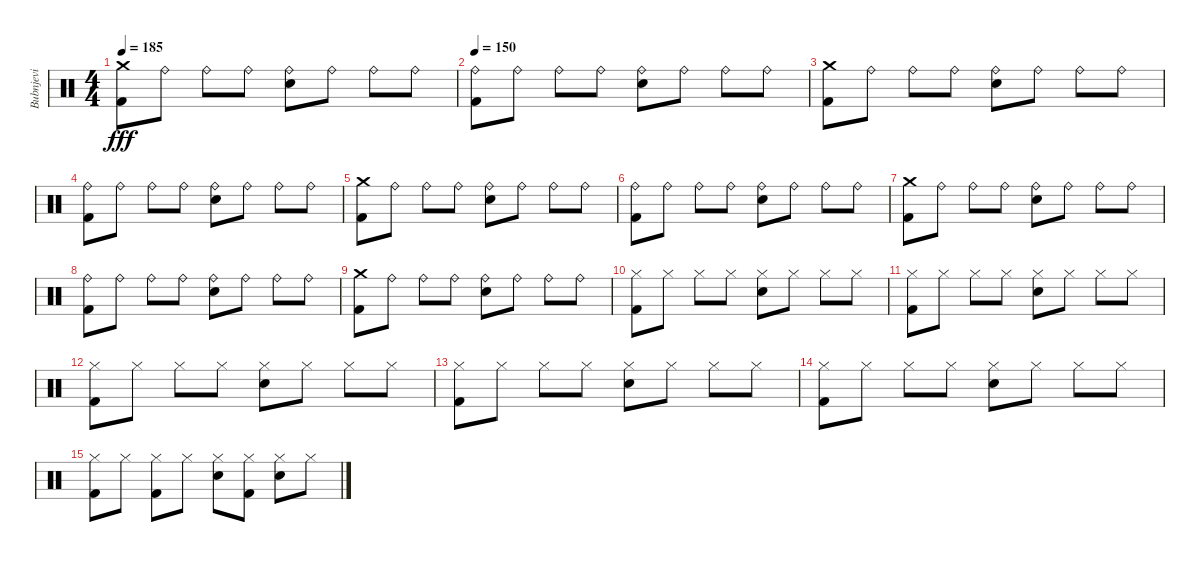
\track ("Bubnjevi" "Bubnjevi") {instrument percussion}
\staff {score}
\articulation defaults
\ts (4 4)
\tempo 185
\clef neutral
\ks c
("Crash medium (hit)" "Kick (hit) 2").8{dy fff} "Ride (bell)".8 "Ride (bell)".8 "Ride (bell)".8 ("Ride (bell)" "Snare (hit) 2").8 "Ride (bell)".8 "Ride (bell)".8 "Ride (bell)".8 |
\tempo 150
("Ride (bell)" "Kick (hit) 2").8 "Ride (bell)".8 "Ride (bell)".8 "Ride (bell)".8 ("Ride (bell)" "Snare (hit) 2").8 "Ride (bell)".8 "Ride (bell)".8 "Ride (bell)".8 |
("Crash medium (hit)" "Kick (hit) 2").8 "Ride (bell)".8 "Ride (bell)".8 "Ride (bell)".8 ("Ride (bell)" "Snare (hit) 2").8 "Ride (bell)".8 "Ride (bell)".8 "Ride (bell)".8 |
("Ride (bell)" "Kick (hit) 2").8 "Ride (bell)".8 "Ride (bell)".8 "Ride (bell)".8 ("Ride (bell)" "Snare (hit) 2").8 "Ride (bell)".8 "Ride (bell)".8 "Ride (bell)".8 |
("Crash medium (hit)" "Kick (hit) 2").8 "Ride (bell)".8 "Ride (bell)".8 "Ride (bell)".8 ("Ride (bell)" "Snare (hit) 2").8 "Ride (bell)".8 "Ride (bell)".8 "Ride (bell)".8 |
("Ride (bell)" "Kick (hit) 2").8 "Ride (bell)".8 "Ride (bell)".8 "Ride (bell)".8 ("Ride (bell)" "Snare (hit) 2").8 "Ride (bell)".8 "Ride (bell)".8 "Ride (bell)".8 |
("Crash medium (hit)" "Kick (hit) 2").8 "Ride (bell)".8 "Ride (bell)".8 "Ride (bell)".8 ("Ride (bell)" "Snare (hit) 2").8 "Ride (bell)".8 "Ride (bell)".8 "Ride (bell)".8 |
("Ride (bell)" "Kick (hit) 2").8 "Ride (bell)".8 "Ride (bell)".8 "Ride (bell)".8 ("Ride (bell)" "Snare (hit) 2").8 "Ride (bell)".8 "Ride (bell)".8 "Ride (bell)".8 |
("Crash medium (hit)" "Kick (hit) 2").8 "Ride (bell)".8 "Ride (bell)".8 "Ride (bell)".8 ("Ride (bell)" "Snare (hit) 2").8 "Ride (bell)".8 "Ride (bell)".8 "Ride (bell)".8 |
("Hi-Hat (closed)" "Kick (hit) 2").8 "Hi-Hat (closed)".8 "Hi-Hat (closed)".8 "Hi-Hat (closed)".8 ("Hi-Hat (closed)" "Snare (hit) 2").8 "Hi-Hat (closed)".8 "Hi-Hat (closed)".8 "Hi-Hat (closed)".8 |
("Hi-Hat (closed)" "Kick (hit) 2").8 "Hi-Hat (closed)".8 "Hi-Hat (closed)".8 "Hi-Hat (closed)".8 ("Hi-Hat (closed)" "Snare (hit) 2").8 "Hi-Hat (closed)".8 "Hi-Hat (closed)".8 "Hi-Hat (closed)".8 |
("Hi-Hat (closed)" "Kick (hit) 2").8 "Hi-Hat (closed)".8 "Hi-Hat (closed)".8 "Hi-Hat (closed)".8 ("Hi-Hat (closed)" "Snare (hit) 2").8 "Hi-Hat (closed)".8 "Hi-Hat (closed)".8 "Hi-Hat (closed)".8 |
("Hi-Hat (closed)" "Kick (hit) 2").8 "Hi-Hat (closed)".8 "Hi-Hat (closed)".8 "Hi-Hat (closed)".8 ("Hi-Hat (closed)" "Snare (hit) 2").8 "Hi-Hat (closed)".8 "Hi-Hat (closed)".8 "Hi-Hat (closed)".8 |
("Hi-Hat (closed)" "Kick (hit) 2").8 "Hi-Hat (closed)".8 "Hi-Hat (closed)".8 "Hi-Hat (closed)".8 ("Hi-Hat (closed)" "Snare (hit) 2").8 "Hi-Hat (closed)".8 "Hi-Hat (closed)".8 "Hi-Hat (closed)".8 |
("Hi-Hat (closed)" "Kick (hit) 2").8 "Hi-Hat (closed)".8 ("Hi-Hat (closed)" "Kick (hit) 2").8 "Hi-Hat (closed)".8 ("Hi-Hat (closed)" "Snare (hit) 2").8 ("Hi-Hat (closed)" "Kick (hit) 2").8 ("Hi-Hat (closed)" "Snare (hit) 2").8 "Hi-Hat (closed)".8
